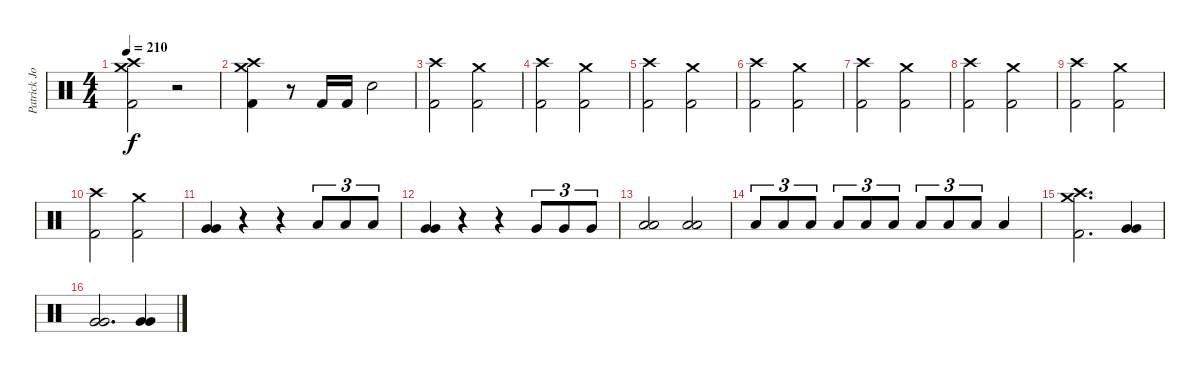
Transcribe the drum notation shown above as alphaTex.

\track ("Patrick Johansson" "Patrick Jo") {instrument percussion}
\staff {score}
\articulation defaults
\ts (4 4)
\tempo 210
\clef neutral
\ks c
("Crash medium (hit)" "Crash high (hit)" "Kick (hit) 2").2{dy f} r.2 |
("Crash medium (hit)" "Crash high (hit)" "Kick (hit) 2").4 r.8 "Kick (hit) 2".16 "Kick (hit) 2".16 "Snare (hit) 2".2 |
("Crash high (hit)" "Kick (hit) 2").2 ("Crash medium (hit)" "Kick (hit) 2").2 |
("Crash high (hit)" "Kick (hit) 2").2 ("Crash medium (hit)" "Kick (hit) 2").2 |
("Crash high (hit)" "Kick (hit) 2").2 ("Crash medium (hit)" "Kick (hit) 2").2 |
("Crash high (hit)" "Kick (hit) 2").2 ("Crash medium (hit)" "Kick (hit) 2").2 |
("Crash high (hit)" "Kick (hit) 2").2 ("Crash medium (hit)" "Kick (hit) 2").2 |
("Crash high (hit)" "Kick (hit) 2").2 ("Crash medium (hit)" "Kick (hit) 2").2 |
("Crash high (hit)" "Kick (hit) 2").2 ("Crash medium (hit)" "Kick (hit) 2").2 |
("Crash high (hit)" "Kick (hit) 2").2 ("Crash medium (hit)" "Kick (hit) 2").2 |
("Very Low Tom (hit)" "Very Low Tom (hit)").4 r.4 r.4 "Low Tom (hit)".8{tu (3 2)} "Low Tom (hit)".8{tu (3 2)} "Low Tom (hit)".8{tu (3 2)} |
("Very Low Tom (hit)" "Very Low Tom (hit)").4 r.4 r.4 "Very Low Tom (hit)".8{tu (3 2)} "Very Low Tom (hit)".8{tu (3 2)} "Very Low Tom (hit)".8{tu (3 2)} |
("Low Floor Tom (hit)" "Low Floor Tom (hit)").2 ("Low Floor Tom (hit)" "Low Floor Tom (hit)").2 |
"Low Floor Tom (hit)".8{tu (3 2)} "Low Floor Tom (hit)".8{tu (3 2)} "Low Floor Tom (hit)".8{tu (3 2)} "Low Floor Tom (hit)".8{tu (3 2)} "Low Floor Tom (hit)".8{tu (3 2)} "Low Floor Tom (hit)".8{tu (3 2)} "Low Floor Tom (hit)".8{tu (3 2)} "Low Floor Tom (hit)".8{tu (3 2)} "Low Floor Tom (hit)".8{tu (3 2)} "Low Floor Tom (hit)".4 |
("Crash medium (hit)" "Crash high (hit)" "Kick (hit) 2").2{d} ("Very Low Tom (hit)" "Very Low Tom (hit)").4 |
("Very Low Tom (hit)" "Very Low Tom (hit)").2{d} ("Very Low Tom (hit)" "Very Low Tom (hit)").4
